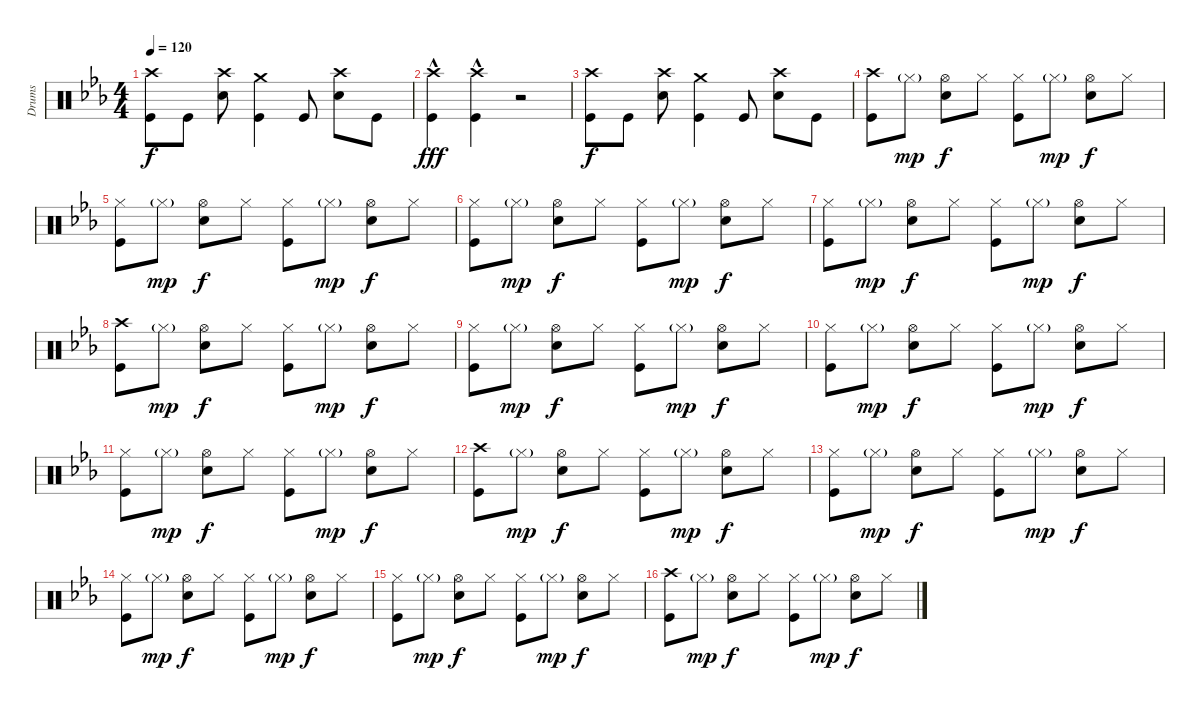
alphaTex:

\track ("Drums" "Drums") {instrument percussion}
\staff {score}
\articulation defaults
\ts (4 4)
\tempo 120
\clef neutral
\ks eb
("Crash high (hit)" "Kick (hit)").8{dy f} "Kick (hit)".8 ("Crash high (hit)" "Electric Snare (hit)").8 ("Crash medium (hit)" "Kick (hit)").4 "Kick (hit)".8 ("Crash high (hit)" "Electric Snare (hit)").8 "Kick (hit)".8 |
("Crash high (hit)"{hac} "Kick (hit)").4{dy fff} ("Crash high (hit)"{hac} "Kick (hit)").4 r.2 |
("Crash high (hit)" "Kick (hit)").8{dy f} "Kick (hit)".8 ("Crash high (hit)" "Electric Snare (hit)").8 ("Crash medium (hit)" "Kick (hit)").4 "Kick (hit)".8 ("Crash high (hit)" "Electric Snare (hit)").8 "Kick (hit)".8 |
("Crash high (hit)" "Kick (hit)").8 "Hi-Hat (closed)"{g}.8{dy mp} ("Hi-Hat (open)" "Electric Snare (hit)").8{dy f} "Hi-Hat (closed)".8 ("Hi-Hat (closed)" "Kick (hit)").8 "Hi-Hat (closed)"{g}.8{dy mp} ("Hi-Hat (open)" "Electric Snare (hit)").8{dy f} "Hi-Hat (closed)".8 |
("Hi-Hat (closed)" "Kick (hit)").8 "Hi-Hat (closed)"{g}.8{dy mp} ("Hi-Hat (open)" "Electric Snare (hit)").8{dy f} "Hi-Hat (closed)".8 ("Hi-Hat (closed)" "Kick (hit)").8 "Hi-Hat (closed)"{g}.8{dy mp} ("Hi-Hat (open)" "Electric Snare (hit)").8{dy f} "Hi-Hat (closed)".8 |
("Hi-Hat (closed)" "Kick (hit)").8 "Hi-Hat (closed)"{g}.8{dy mp} ("Hi-Hat (open)" "Electric Snare (hit)").8{dy f} "Hi-Hat (closed)".8 ("Hi-Hat (closed)" "Kick (hit)").8 "Hi-Hat (closed)"{g}.8{dy mp} ("Hi-Hat (open)" "Electric Snare (hit)").8{dy f} "Hi-Hat (closed)".8 |
("Hi-Hat (closed)" "Kick (hit)").8 "Hi-Hat (closed)"{g}.8{dy mp} ("Hi-Hat (open)" "Electric Snare (hit)").8{dy f} "Hi-Hat (closed)".8 ("Hi-Hat (closed)" "Kick (hit)").8 "Hi-Hat (closed)"{g}.8{dy mp} ("Hi-Hat (open)" "Electric Snare (hit)").8{dy f} "Hi-Hat (closed)".8 |
("Crash high (hit)" "Kick (hit)").8 "Hi-Hat (closed)"{g}.8{dy mp} ("Hi-Hat (open)" "Electric Snare (hit)").8{dy f} "Hi-Hat (closed)".8 ("Hi-Hat (closed)" "Kick (hit)").8 "Hi-Hat (closed)"{g}.8{dy mp} ("Hi-Hat (open)" "Electric Snare (hit)").8{dy f} "Hi-Hat (closed)".8 |
("Hi-Hat (closed)" "Kick (hit)").8 "Hi-Hat (closed)"{g}.8{dy mp} ("Hi-Hat (open)" "Electric Snare (hit)").8{dy f} "Hi-Hat (closed)".8 ("Hi-Hat (closed)" "Kick (hit)").8 "Hi-Hat (closed)"{g}.8{dy mp} ("Hi-Hat (open)" "Electric Snare (hit)").8{dy f} "Hi-Hat (closed)".8 |
("Hi-Hat (closed)" "Kick (hit)").8 "Hi-Hat (closed)"{g}.8{dy mp} ("Hi-Hat (open)" "Electric Snare (hit)").8{dy f} "Hi-Hat (closed)".8 ("Hi-Hat (closed)" "Kick (hit)").8 "Hi-Hat (closed)"{g}.8{dy mp} ("Hi-Hat (open)" "Electric Snare (hit)").8{dy f} "Hi-Hat (closed)".8 |
("Hi-Hat (closed)" "Kick (hit)").8 "Hi-Hat (closed)"{g}.8{dy mp} ("Hi-Hat (open)" "Electric Snare (hit)").8{dy f} "Hi-Hat (closed)".8 ("Hi-Hat (closed)" "Kick (hit)").8 "Hi-Hat (closed)"{g}.8{dy mp} ("Hi-Hat (open)" "Electric Snare (hit)").8{dy f} "Hi-Hat (closed)".8 |
("Crash high (hit)" "Kick (hit)").8 "Hi-Hat (closed)"{g}.8{dy mp} ("Hi-Hat (open)" "Electric Snare (hit)").8{dy f} "Hi-Hat (closed)".8 ("Hi-Hat (closed)" "Kick (hit)").8 "Hi-Hat (closed)"{g}.8{dy mp} ("Hi-Hat (open)" "Electric Snare (hit)").8{dy f} "Hi-Hat (closed)".8 |
("Hi-Hat (closed)" "Kick (hit)").8 "Hi-Hat (closed)"{g}.8{dy mp} ("Hi-Hat (open)" "Electric Snare (hit)").8{dy f} "Hi-Hat (closed)".8 ("Hi-Hat (closed)" "Kick (hit)").8 "Hi-Hat (closed)"{g}.8{dy mp} ("Hi-Hat (open)" "Electric Snare (hit)").8{dy f} "Hi-Hat (closed)".8 |
("Hi-Hat (closed)" "Kick (hit)").8 "Hi-Hat (closed)"{g}.8{dy mp} ("Hi-Hat (open)" "Electric Snare (hit)").8{dy f} "Hi-Hat (closed)".8 ("Hi-Hat (closed)" "Kick (hit)").8 "Hi-Hat (closed)"{g}.8{dy mp} ("Hi-Hat (open)" "Electric Snare (hit)").8{dy f} "Hi-Hat (closed)".8 |
("Hi-Hat (closed)" "Kick (hit)").8 "Hi-Hat (closed)"{g}.8{dy mp} ("Hi-Hat (open)" "Electric Snare (hit)").8{dy f} "Hi-Hat (closed)".8 ("Hi-Hat (closed)" "Kick (hit)").8 "Hi-Hat (closed)"{g}.8{dy mp} ("Hi-Hat (open)" "Electric Snare (hit)").8{dy f} "Hi-Hat (closed)".8 |
("Crash high (hit)" "Kick (hit)").8 "Hi-Hat (closed)"{g}.8{dy mp} ("Hi-Hat (open)" "Electric Snare (hit)").8{dy f} "Hi-Hat (closed)".8 ("Hi-Hat (closed)" "Kick (hit)").8 "Hi-Hat (closed)"{g}.8{dy mp} ("Hi-Hat (open)" "Electric Snare (hit)").8{dy f} "Hi-Hat (closed)".8
